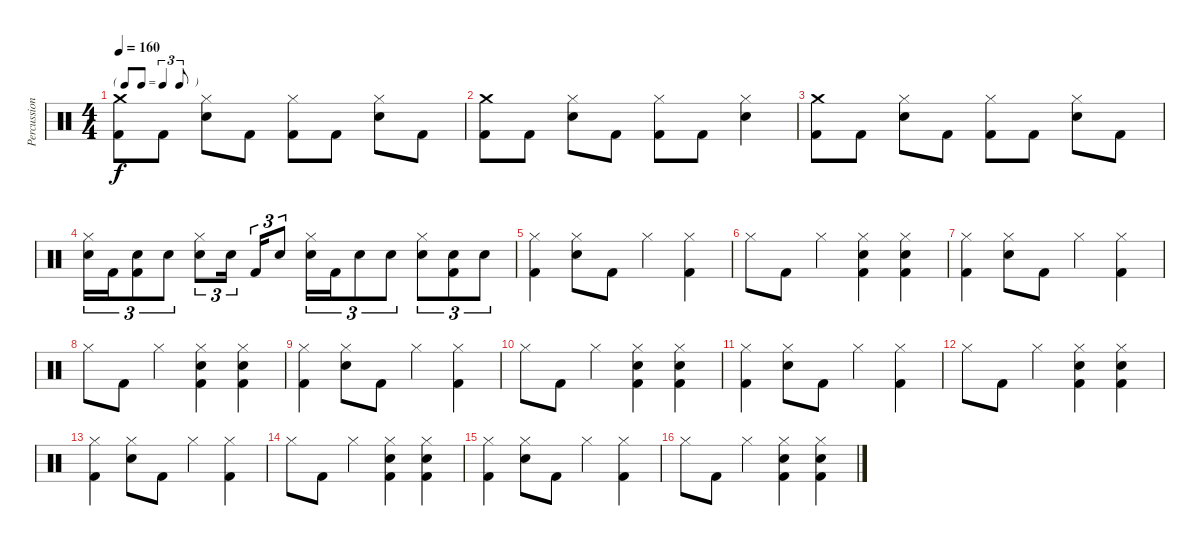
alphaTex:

\track ("Percussion" "Percussion") {instrument percussion}
\staff {score}
\articulation defaults
\ts (4 4)
\tf triplet8th
\tempo 160
\clef neutral
\ks c
("Kick (hit) 2" "Crash medium (hit)").8{dy f} "Kick (hit) 2".8 ("Snare (hit) 2" "Hi-Hat (closed)").8 "Kick (hit) 2".8 ("Kick (hit) 2" "Hi-Hat (closed)").8 "Kick (hit) 2".8 ("Snare (hit) 2" "Hi-Hat (closed)").8 "Kick (hit) 2".8 |
("Kick (hit) 2" "Crash medium (hit)").8 "Kick (hit) 2".8 ("Snare (hit) 2" "Hi-Hat (closed)").8 "Kick (hit) 2".8 ("Kick (hit) 2" "Hi-Hat (closed)").8 "Kick (hit) 2".8 ("Snare (hit) 2" "Hi-Hat (closed)").4 |
("Kick (hit) 2" "Crash medium (hit)").8 "Kick (hit) 2".8 ("Snare (hit) 2" "Hi-Hat (closed)").8 "Kick (hit) 2".8 ("Kick (hit) 2" "Hi-Hat (closed)").8 "Kick (hit) 2".8 ("Snare (hit) 2" "Hi-Hat (closed)").8 "Kick (hit) 2".8 |
("Snare (hit) 2" "Hi-Hat (closed)").16{tu (3 2)} "Kick (hit) 2".16{tu (3 2)} ("Snare (hit) 2" "Kick (hit) 2").8{tu (3 2)} "Snare (hit) 2".8{tu (3 2)} ("Snare (hit) 2" "Hi-Hat (closed)").8{tu (3 2)} "Snare (hit) 2".16{tu (3 2)} "Kick (hit) 2".16{tu (3 2)} "Snare (hit) 2".8{tu (3 2)} ("Snare (hit) 2" "Hi-Hat (closed)").16{tu (3 2)} "Kick (hit) 2".16{tu (3 2)} "Snare (hit) 2".8{tu (3 2)} "Snare (hit) 2".8{tu (3 2)} ("Snare (hit) 2" "Hi-Hat (closed)").8{tu (3 2)} ("Snare (hit) 2" "Kick (hit) 2").8{tu (3 2)} "Snare (hit) 2".8{tu (3 2)} |
("Kick (hit) 2" "Hi-Hat (closed)").4 ("Snare (hit) 2" "Hi-Hat (closed)").8 "Kick (hit) 2".8 "Hi-Hat (closed)".4 ("Kick (hit) 2" "Hi-Hat (closed)").4 |
"Hi-Hat (closed)".8 "Kick (hit) 2".8 "Hi-Hat (closed)".4 ("Kick (hit) 2" "Snare (hit) 2" "Hi-Hat (closed)").4 ("Kick (hit) 2" "Snare (hit) 2" "Hi-Hat (closed)").4 |
("Kick (hit) 2" "Hi-Hat (closed)").4 ("Snare (hit) 2" "Hi-Hat (closed)").8 "Kick (hit) 2".8 "Hi-Hat (closed)".4 ("Kick (hit) 2" "Hi-Hat (closed)").4 |
"Hi-Hat (closed)".8 "Kick (hit) 2".8 "Hi-Hat (closed)".4 ("Kick (hit) 2" "Snare (hit) 2" "Hi-Hat (closed)").4 ("Kick (hit) 2" "Snare (hit) 2" "Hi-Hat (closed)").4 |
("Kick (hit) 2" "Hi-Hat (closed)").4 ("Snare (hit) 2" "Hi-Hat (closed)").8 "Kick (hit) 2".8 "Hi-Hat (closed)".4 ("Kick (hit) 2" "Hi-Hat (closed)").4 |
"Hi-Hat (closed)".8 "Kick (hit) 2".8 "Hi-Hat (closed)".4 ("Kick (hit) 2" "Snare (hit) 2" "Hi-Hat (closed)").4 ("Kick (hit) 2" "Snare (hit) 2" "Hi-Hat (closed)").4 |
("Kick (hit) 2" "Hi-Hat (closed)").4 ("Snare (hit) 2" "Hi-Hat (closed)").8 "Kick (hit) 2".8 "Hi-Hat (closed)".4 ("Kick (hit) 2" "Hi-Hat (closed)").4 |
"Hi-Hat (closed)".8 "Kick (hit) 2".8 "Hi-Hat (closed)".4 ("Kick (hit) 2" "Snare (hit) 2" "Hi-Hat (closed)").4 ("Kick (hit) 2" "Snare (hit) 2" "Hi-Hat (closed)").4 |
("Kick (hit) 2" "Hi-Hat (closed)").4 ("Snare (hit) 2" "Hi-Hat (closed)").8 "Kick (hit) 2".8 "Hi-Hat (closed)".4 ("Kick (hit) 2" "Hi-Hat (closed)").4 |
"Hi-Hat (closed)".8 "Kick (hit) 2".8 "Hi-Hat (closed)".4 ("Kick (hit) 2" "Snare (hit) 2" "Hi-Hat (closed)").4 ("Kick (hit) 2" "Snare (hit) 2" "Hi-Hat (closed)").4 |
("Kick (hit) 2" "Hi-Hat (closed)").4 ("Snare (hit) 2" "Hi-Hat (closed)").8 "Kick (hit) 2".8 "Hi-Hat (closed)".4 ("Kick (hit) 2" "Hi-Hat (closed)").4 |
"Hi-Hat (closed)".8 "Kick (hit) 2".8 "Hi-Hat (closed)".4 ("Kick (hit) 2" "Snare (hit) 2" "Hi-Hat (closed)").4 ("Kick (hit) 2" "Snare (hit) 2" "Hi-Hat (closed)").4
